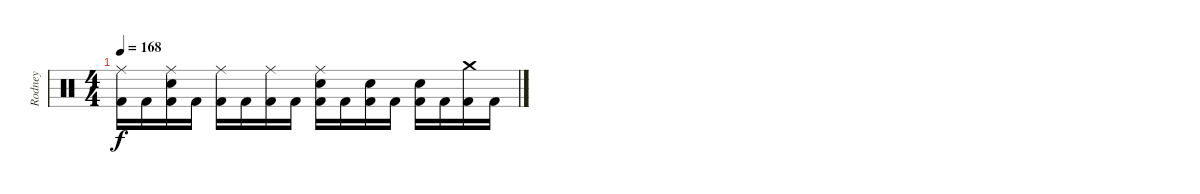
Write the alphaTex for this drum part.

\track ("Rodney" "Rodney") {instrument percussion}
\staff {score}
\articulation defaults
\ts (4 4)
\tempo 168
\clef neutral
\ks c
("Ride (middle)" "Kick (hit) 2").16{dy f volume 0} "Kick (hit) 2".16 ("Ride (middle)" "Snare (hit) 2" "Kick (hit) 2").16 "Kick (hit) 2".16 ("Ride (middle)" "Kick (hit) 2").16 "Kick (hit) 2".16 ("Ride (middle)" "Kick (hit) 2").16 "Kick (hit) 2".16 ("Ride (middle)" "Snare (hit) 2" "Kick (hit) 2").16 "Kick (hit) 2".16 ("Snare (hit) 2" "Kick (hit) 2").16 "Kick (hit) 2".16 ("Snare (hit) 2" "Kick (hit) 2").16 "Kick (hit) 2".16 ("Crash medium (hit)" "Kick (hit) 2").16 "Kick (hit) 2".16
